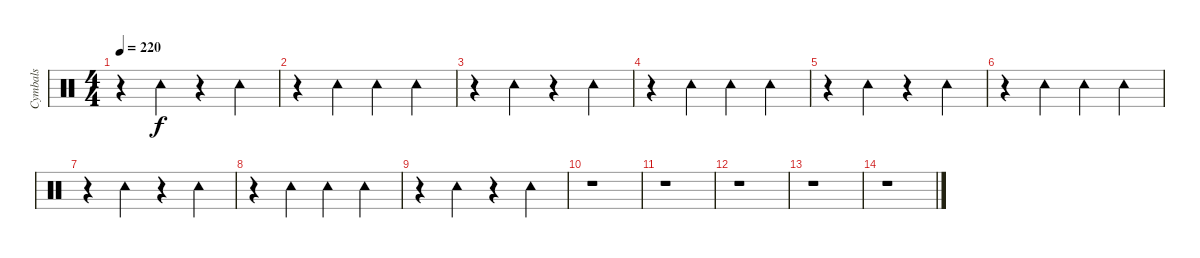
\track ("Cymbals" "Cymbals") {instrument percussion}
\staff {score}
\articulation defaults
\ts (4 4)
\tempo 220
\clef neutral
\ks c
r.4{dy f} "Tambourine (hit)".4 r.4 "Tambourine (hit)".4 |
r.4 "Tambourine (hit)".4 "Tambourine (hit)".4 "Tambourine (hit)".4 |
r.4 "Tambourine (hit)".4 r.4 "Tambourine (hit)".4 |
r.4 "Tambourine (hit)".4 "Tambourine (hit)".4 "Tambourine (hit)".4 |
r.4 "Tambourine (hit)".4 r.4 "Tambourine (hit)".4 |
r.4 "Tambourine (hit)".4 "Tambourine (hit)".4 "Tambourine (hit)".4 |
r.4 "Tambourine (hit)".4 r.4 "Tambourine (hit)".4 |
r.4 "Tambourine (hit)".4 "Tambourine (hit)".4 "Tambourine (hit)".4 |
r.4 "Tambourine (hit)".4 r.4 "Tambourine (hit)".4 |
r.1 |
r.1 |
r.1 |
r.1 |
r.1
